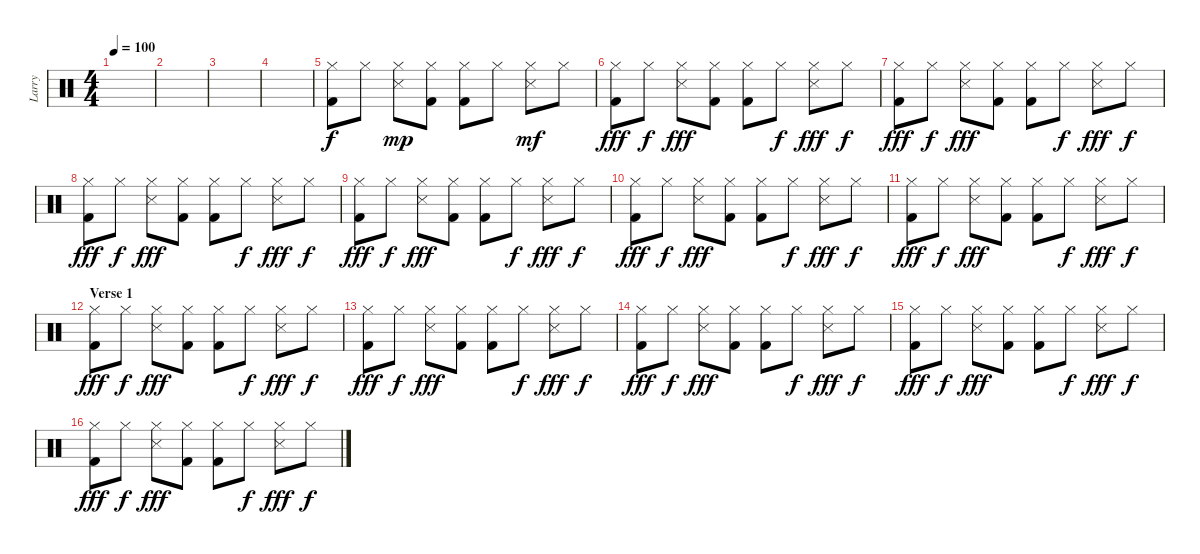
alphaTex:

\track ("Larry" "Larry") {instrument percussion}
\staff {score}
\articulation defaults
\ts (4 4)
\tempo 100
\clef neutral
\ks c
|
|
|
|
("Kick (hit) 2" "Hi-Hat (closed)").8{volume 9} "Hi-Hat (closed)".8 ("Snare (side stick) 3" "Hi-Hat (closed)").8{dy mp} ("Kick (hit) 2" "Hi-Hat (closed)").8 ("Kick (hit) 2" "Hi-Hat (closed)").8 "Hi-Hat (closed)".8 ("Snare (side stick) 3" "Hi-Hat (closed)").8{dy mf} "Hi-Hat (closed)".8 |
("Hi-Hat (closed)" "Kick (hit) 2").8{dy fff} "Hi-Hat (closed)".8{dy f} ("Hi-Hat (closed)" "Snare (side stick) 3").8{dy fff} ("Hi-Hat (closed)" "Kick (hit) 2").8 ("Hi-Hat (closed)" "Kick (hit) 2").8 "Hi-Hat (closed)".8{dy f} ("Hi-Hat (closed)" "Snare (side stick) 3").8{dy fff} "Hi-Hat (closed)".8{dy f} |
("Kick (hit) 2" "Hi-Hat (closed)").8{dy fff} "Hi-Hat (closed)".8{dy f} ("Snare (side stick) 3" "Hi-Hat (closed)").8{dy fff} ("Kick (hit) 2" "Hi-Hat (closed)").8 ("Kick (hit) 2" "Hi-Hat (closed)").8 "Hi-Hat (closed)".8{dy f} ("Snare (side stick) 3" "Hi-Hat (closed)").8{dy fff} "Hi-Hat (closed)".8{dy f} |
("Kick (hit) 2" "Hi-Hat (closed)").8{dy fff} "Hi-Hat (closed)".8{dy f} ("Snare (side stick) 3" "Hi-Hat (closed)").8{dy fff} ("Kick (hit) 2" "Hi-Hat (closed)").8 ("Kick (hit) 2" "Hi-Hat (closed)").8 "Hi-Hat (closed)".8{dy f} ("Snare (side stick) 3" "Hi-Hat (closed)").8{dy fff} "Hi-Hat (closed)".8{dy f} |
("Hi-Hat (closed)" "Kick (hit) 2").8{dy fff} "Hi-Hat (closed)".8{dy f} ("Hi-Hat (closed)" "Snare (side stick) 3").8{dy fff} ("Hi-Hat (closed)" "Kick (hit) 2").8 ("Hi-Hat (closed)" "Kick (hit) 2").8 "Hi-Hat (closed)".8{dy f} ("Hi-Hat (closed)" "Snare (side stick) 3").8{dy fff} "Hi-Hat (closed)".8{dy f} |
("Kick (hit) 2" "Hi-Hat (closed)").8{dy fff} "Hi-Hat (closed)".8{dy f} ("Snare (side stick) 3" "Hi-Hat (closed)").8{dy fff} ("Kick (hit) 2" "Hi-Hat (closed)").8 ("Kick (hit) 2" "Hi-Hat (closed)").8 "Hi-Hat (closed)".8{dy f} ("Snare (side stick) 3" "Hi-Hat (closed)").8{dy fff} "Hi-Hat (closed)".8{dy f} |
("Hi-Hat (closed)" "Kick (hit) 2").8{dy fff} "Hi-Hat (closed)".8{dy f} ("Hi-Hat (closed)" "Snare (side stick) 3").8{dy fff} ("Hi-Hat (closed)" "Kick (hit) 2").8 ("Hi-Hat (closed)" "Kick (hit) 2").8 "Hi-Hat (closed)".8{dy f} ("Hi-Hat (closed)" "Snare (side stick) 3").8{dy fff} "Hi-Hat (closed)".8{dy f} |
\section ("" "Verse 1")
("Hi-Hat (closed)" "Kick (hit) 2").8{dy fff} "Hi-Hat (closed)".8{dy f} ("Hi-Hat (closed)" "Snare (side stick) 3").8{dy fff} ("Hi-Hat (closed)" "Kick (hit) 2").8 ("Hi-Hat (closed)" "Kick (hit) 2").8 "Hi-Hat (closed)".8{dy f} ("Hi-Hat (closed)" "Snare (side stick) 3").8{dy fff} "Hi-Hat (closed)".8{dy f} |
("Kick (hit) 2" "Hi-Hat (closed)").8{dy fff} "Hi-Hat (closed)".8{dy f} ("Snare (side stick) 3" "Hi-Hat (closed)").8{dy fff} ("Kick (hit) 2" "Hi-Hat (closed)").8 ("Kick (hit) 2" "Hi-Hat (closed)").8 "Hi-Hat (closed)".8{dy f} ("Snare (side stick) 3" "Hi-Hat (closed)").8{dy fff} "Hi-Hat (closed)".8{dy f} |
("Kick (hit) 2" "Hi-Hat (closed)").8{dy fff} "Hi-Hat (closed)".8{dy f} ("Snare (side stick) 3" "Hi-Hat (closed)").8{dy fff} ("Kick (hit) 2" "Hi-Hat (closed)").8 ("Kick (hit) 2" "Hi-Hat (closed)").8 "Hi-Hat (closed)".8{dy f} ("Snare (side stick) 3" "Hi-Hat (closed)").8{dy fff} "Hi-Hat (closed)".8{dy f} |
("Hi-Hat (closed)" "Kick (hit) 2").8{dy fff} "Hi-Hat (closed)".8{dy f} ("Hi-Hat (closed)" "Snare (side stick) 3").8{dy fff} ("Hi-Hat (closed)" "Kick (hit) 2").8 ("Hi-Hat (closed)" "Kick (hit) 2").8 "Hi-Hat (closed)".8{dy f} ("Hi-Hat (closed)" "Snare (side stick) 3").8{dy fff} "Hi-Hat (closed)".8{dy f} |
("Hi-Hat (closed)" "Kick (hit) 2").8{dy fff} "Hi-Hat (closed)".8{dy f} ("Hi-Hat (closed)" "Snare (side stick) 3").8{dy fff} ("Hi-Hat (closed)" "Kick (hit) 2").8 ("Hi-Hat (closed)" "Kick (hit) 2").8 "Hi-Hat (closed)".8{dy f} ("Hi-Hat (closed)" "Snare (side stick) 3").8{dy fff} "Hi-Hat (closed)".8{dy f}
